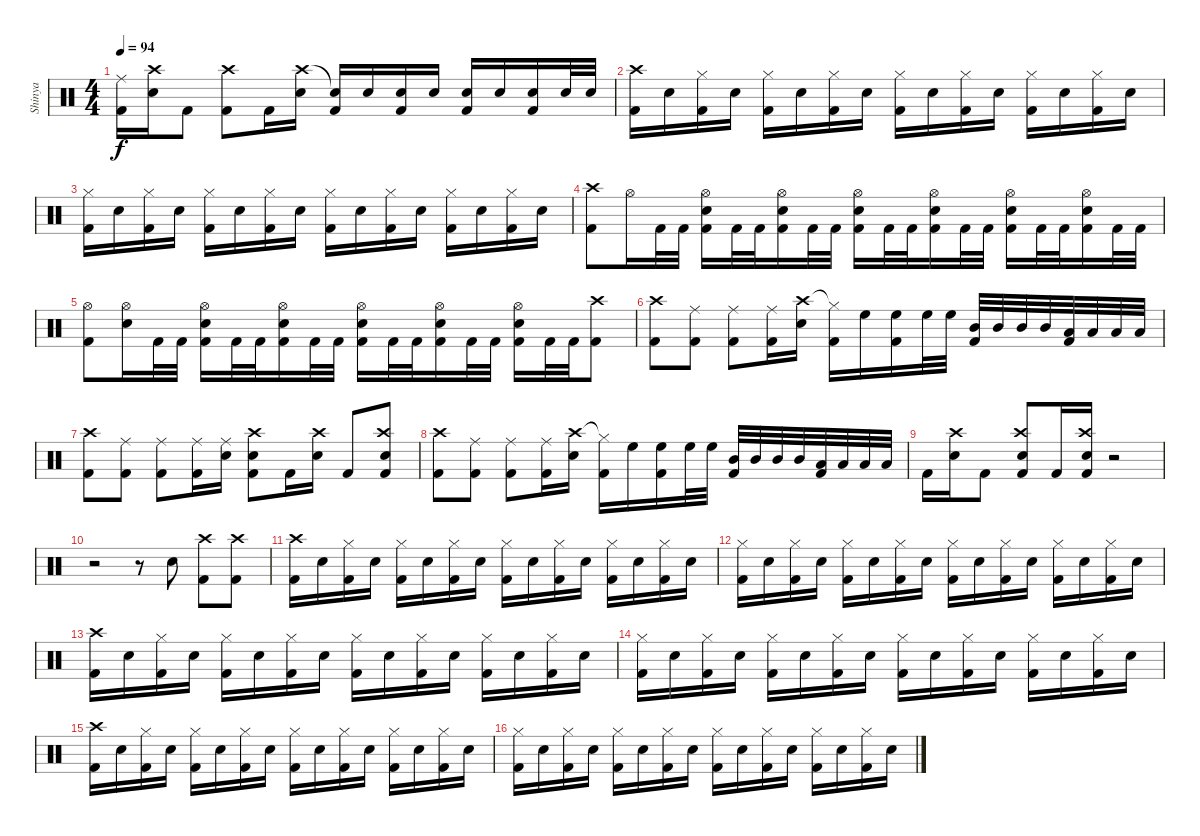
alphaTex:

\track ("Shinya" "Shinya") {instrument percussion}
\staff {score}
\articulation defaults
\ts (4 4)
\tempo 94
\clef neutral
\ks c
("Ride (middle)" "Kick (hit) 2").16{dy f} ("Crash high (hit)" "Snare (hit) 2").16 "Kick (hit) 2".8 ("Crash high (hit)" "Kick (hit) 2").8 "Kick (hit) 2".16 ("Crash high (hit)" "Snare (hit) 2").16 ("Snare (hit)"{t} "Kick (hit) 2").16 "Snare (hit) 2".16 ("Snare (hit) 2" "Kick (hit) 2").16 "Snare (hit) 2".16 ("Snare (hit) 2" "Kick (hit) 2").16 "Snare (hit) 2".16 ("Snare (hit) 2" "Kick (hit) 2").16 "Snare (hit) 2".32 "Snare (hit) 2".32 |
("Crash high (hit)" "Kick (hit) 2").16 "Snare (hit) 2".16 ("Hi-Hat (closed)" "Kick (hit) 2").16 "Snare (hit) 2".16 ("Hi-Hat (closed)" "Kick (hit) 2").16 "Snare (hit) 2".16 ("Hi-Hat (closed)" "Kick (hit) 2").16 "Snare (hit) 2".16 ("Hi-Hat (closed)" "Kick (hit) 2").16 "Snare (hit) 2".16 ("Hi-Hat (closed)" "Kick (hit) 2").16 "Snare (hit) 2".16 ("Hi-Hat (closed)" "Kick (hit) 2").16 "Snare (hit) 2".16 ("Hi-Hat (closed)" "Kick (hit) 2").16 "Snare (hit) 2".16 |
("Hi-Hat (closed)" "Kick (hit) 2").16 "Snare (hit) 2".16 ("Hi-Hat (closed)" "Kick (hit) 2").16 "Snare (hit) 2".16 ("Hi-Hat (closed)" "Kick (hit) 2").16 "Snare (hit) 2".16 ("Hi-Hat (closed)" "Kick (hit) 2").16 "Snare (hit) 2".16 ("Hi-Hat (closed)" "Kick (hit) 2").16 "Snare (hit) 2".16 ("Hi-Hat (closed)" "Kick (hit) 2").16 "Snare (hit) 2".16 ("Hi-Hat (closed)" "Kick (hit) 2").16 "Snare (hit) 2".16 ("Hi-Hat (closed)" "Kick (hit) 2").16 "Snare (hit) 2".16 |
("Crash high (hit)" "Kick (hit) 2").8 "Hi-Hat (open)".16 "Kick (hit) 2".32 "Kick (hit) 2".32 ("Snare (hit) 2" "Hi-Hat (open)" "Kick (hit) 2").16 "Kick (hit) 2".32 "Kick (hit) 2".32 ("Snare (hit) 2" "Hi-Hat (open)" "Kick (hit) 2").16 "Kick (hit) 2".32 "Kick (hit) 2".32 ("Snare (hit) 2" "Hi-Hat (open)" "Kick (hit) 2").16 "Kick (hit) 2".32 "Kick (hit) 2".32 ("Snare (hit) 2" "Hi-Hat (open)" "Kick (hit) 2").16 "Kick (hit) 2".32 "Kick (hit) 2".32 ("Snare (hit) 2" "Hi-Hat (open)" "Kick (hit) 2").16 "Kick (hit) 2".32 "Kick (hit) 2".32 ("Hi-Hat (open)" "Snare (hit) 2" "Kick (hit) 2").16 "Kick (hit) 2".32 "Kick (hit) 2".32 |
("Hi-Hat (open)" "Kick (hit) 2").8 ("Hi-Hat (open)" "Snare (hit) 2").16 "Kick (hit) 2".32 "Kick (hit) 2".32 ("Snare (hit) 2" "Hi-Hat (open)" "Kick (hit) 2").16 "Kick (hit) 2".32 "Kick (hit) 2".32 ("Snare (hit) 2" "Hi-Hat (open)" "Kick (hit) 2").16 "Kick (hit) 2".32 "Kick (hit) 2".32 ("Snare (hit) 2" "Hi-Hat (open)" "Kick (hit) 2").16 "Kick (hit) 2".32 "Kick (hit) 2".32 ("Snare (hit) 2" "Hi-Hat (open)" "Kick (hit) 2").16 "Kick (hit) 2".32 "Kick (hit) 2".32 ("Snare (hit) 2" "Hi-Hat (open)" "Kick (hit) 2").16 "Kick (hit) 2".32 "Kick (hit) 2".32 ("Crash high (hit)" "Kick (hit) 2").8 |
("Crash high (hit)" "Kick (hit) 2").8 ("Ride (middle)" "Kick (hit) 2").8 ("Ride (middle)" "Kick (hit) 2").8 ("Ride (middle)" "Kick (hit) 2").16 ("Crash high (hit)" "Snare (hit) 2").16 ("Hi-Hat (closed)"{t} "Kick (hit) 2").16 "High Floor Tom (hit)".16 ("High Floor Tom (hit)" "Kick (hit) 2").16 "High Floor Tom (hit)".32 "High Floor Tom (hit)".32 ("Mid Tom (hit)" "Kick (hit) 2").32 "Mid Tom (hit)".32 "Mid Tom (hit)".32 "Mid Tom (hit)".32 ("Low Tom (hit)" "Kick (hit) 2").32 "Low Tom (hit)".32 "Low Tom (hit)".32 "Low Tom (hit)".32 |
("Crash high (hit)" "Kick (hit) 2").8 ("Ride (middle)" "Kick (hit) 2").8 ("Ride (middle)" "Kick (hit) 2").8 ("Ride (middle)" "Kick (hit) 2").16 ("Snare (hit) 2" "Ride (middle)").16 ("Snare (hit) 2" "Crash high (hit)" "Kick (hit) 2").8 "Kick (hit) 2".16 ("Crash high (hit)" "Snare (hit) 2").16 "Kick (hit) 2".8 ("Crash high (hit)" "Snare (hit) 2" "Kick (hit) 2").8 |
("Crash high (hit)" "Kick (hit) 2").8 ("Ride (middle)" "Kick (hit) 2").8 ("Ride (middle)" "Kick (hit) 2").8 ("Ride (middle)" "Kick (hit) 2").16 ("Crash high (hit)" "Snare (hit) 2").16 ("Hi-Hat (closed)"{t} "Kick (hit) 2").16 "High Floor Tom (hit)".16 ("High Floor Tom (hit)" "Kick (hit) 2").16 "High Floor Tom (hit)".32 "High Floor Tom (hit)".32 ("Mid Tom (hit)" "Kick (hit) 2").32 "Mid Tom (hit)".32 "Mid Tom (hit)".32 "Mid Tom (hit)".32 ("Low Tom (hit)" "Kick (hit) 2").32 "Low Tom (hit)".32 "Low Tom (hit)".32 "Low Tom (hit)".32 |
"Kick (hit) 2".16 ("Crash high (hit)" "Snare (hit) 2").16 "Kick (hit) 2".8 ("Crash high (hit)" "Kick (hit) 2" "Snare (hit) 2").8 "Kick (hit) 2".16 ("Crash high (hit)" "Snare (hit) 2" "Kick (hit) 2").16 r.2 |
r.2 r.8 "Snare (hit) 2".8 ("Crash high (hit)" "Kick (hit) 2").8 ("Crash high (hit)" "Kick (hit) 2").8 |
("Crash high (hit)" "Kick (hit) 2").16 "Snare (hit) 2".16 ("Hi-Hat (closed)" "Kick (hit) 2").16 "Snare (hit) 2".16 ("Hi-Hat (closed)" "Kick (hit) 2").16 "Snare (hit) 2".16 ("Hi-Hat (closed)" "Kick (hit) 2").16 "Snare (hit) 2".16 ("Hi-Hat (closed)" "Kick (hit) 2").16 "Snare (hit) 2".16 ("Hi-Hat (closed)" "Kick (hit) 2").16 "Snare (hit) 2".16 ("Hi-Hat (closed)" "Kick (hit) 2").16 "Snare (hit) 2".16 ("Hi-Hat (closed)" "Kick (hit) 2").16 "Snare (hit) 2".16 |
("Hi-Hat (closed)" "Kick (hit) 2").16 "Snare (hit) 2".16 ("Hi-Hat (closed)" "Kick (hit) 2").16 "Snare (hit) 2".16 ("Hi-Hat (closed)" "Kick (hit) 2").16 "Snare (hit) 2".16 ("Hi-Hat (closed)" "Kick (hit) 2").16 "Snare (hit) 2".16 ("Hi-Hat (closed)" "Kick (hit) 2").16 "Snare (hit) 2".16 ("Hi-Hat (closed)" "Kick (hit) 2").16 "Snare (hit) 2".16 ("Hi-Hat (closed)" "Kick (hit) 2").16 "Snare (hit) 2".16 ("Hi-Hat (closed)" "Kick (hit) 2").16 "Snare (hit) 2".16 |
("Crash high (hit)" "Kick (hit) 2").16 "Snare (hit) 2".16 ("Hi-Hat (closed)" "Kick (hit) 2").16 "Snare (hit) 2".16 ("Hi-Hat (closed)" "Kick (hit) 2").16 "Snare (hit) 2".16 ("Hi-Hat (closed)" "Kick (hit) 2").16 "Snare (hit) 2".16 ("Hi-Hat (closed)" "Kick (hit) 2").16 "Snare (hit) 2".16 ("Hi-Hat (closed)" "Kick (hit) 2").16 "Snare (hit) 2".16 ("Hi-Hat (closed)" "Kick (hit) 2").16 "Snare (hit) 2".16 ("Hi-Hat (closed)" "Kick (hit) 2").16 "Snare (hit) 2".16 |
("Hi-Hat (closed)" "Kick (hit) 2").16 "Snare (hit) 2".16 ("Hi-Hat (closed)" "Kick (hit) 2").16 "Snare (hit) 2".16 ("Hi-Hat (closed)" "Kick (hit) 2").16 "Snare (hit) 2".16 ("Hi-Hat (closed)" "Kick (hit) 2").16 "Snare (hit) 2".16 ("Hi-Hat (closed)" "Kick (hit) 2").16 "Snare (hit) 2".16 ("Hi-Hat (closed)" "Kick (hit) 2").16 "Snare (hit) 2".16 ("Hi-Hat (closed)" "Kick (hit) 2").16 "Snare (hit) 2".16 ("Hi-Hat (closed)" "Kick (hit) 2").16 "Snare (hit) 2".16 |
("Crash high (hit)" "Kick (hit) 2").16 "Snare (hit) 2".16 ("Hi-Hat (closed)" "Kick (hit) 2").16 "Snare (hit) 2".16 ("Hi-Hat (closed)" "Kick (hit) 2").16 "Snare (hit) 2".16 ("Hi-Hat (closed)" "Kick (hit) 2").16 "Snare (hit) 2".16 ("Hi-Hat (closed)" "Kick (hit) 2").16 "Snare (hit) 2".16 ("Hi-Hat (closed)" "Kick (hit) 2").16 "Snare (hit) 2".16 ("Hi-Hat (closed)" "Kick (hit) 2").16 "Snare (hit) 2".16 ("Hi-Hat (closed)" "Kick (hit) 2").16 "Snare (hit) 2".16 |
("Hi-Hat (closed)" "Kick (hit) 2").16 "Snare (hit) 2".16 ("Hi-Hat (closed)" "Kick (hit) 2").16 "Snare (hit) 2".16 ("Hi-Hat (closed)" "Kick (hit) 2").16 "Snare (hit) 2".16 ("Hi-Hat (closed)" "Kick (hit) 2").16 "Snare (hit) 2".16 ("Hi-Hat (closed)" "Kick (hit) 2").16 "Snare (hit) 2".16 ("Hi-Hat (closed)" "Kick (hit) 2").16 "Snare (hit) 2".16 ("Hi-Hat (closed)" "Kick (hit) 2").16 "Snare (hit) 2".16 ("Hi-Hat (closed)" "Kick (hit) 2").16 "Snare (hit) 2".16
